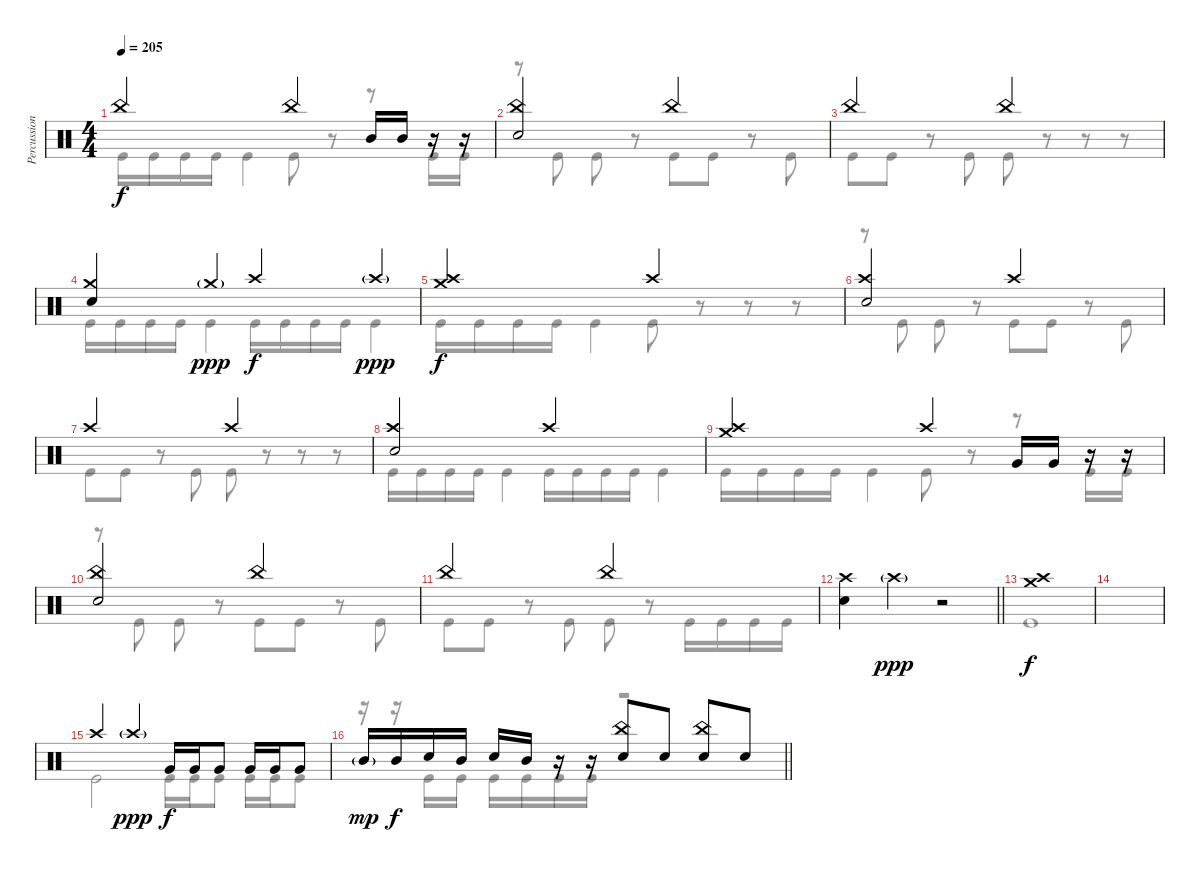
\track ("Percussion" "Percussion") {instrument percussion}
\staff {score}
\articulation defaults
\voice
\ts (4 4)
\tempo 205
\clef neutral
\ks c "China (hit)".2{dy f} "China (hit)".4 "Mid Tom (hit)".16 "Mid Tom (hit)".16
r.16 r.16 |
("China (hit)" "Electric Snare (hit)").2 "China (hit)".2 |
"China (hit)".2 "China (hit)".2 |
("Crash medium (hit)" "Electric Snare (hit)").4 "Crash medium (hit)"{g}.4{dy ppp} "Crash high (hit)".4{dy f} "Crash high (hit)"{g}.4{dy ppp} |
("Crash medium (hit)" "Crash high (hit)").2{dy f} "Crash high (hit)".2 |
("Crash high (hit)" "Electric Snare (hit)").2 "Crash high (hit)".2 |
"Crash high (hit)".2 "Crash high (hit)".2 |
("Crash high (hit)" "Electric Snare (hit)").2 "Crash high (hit)".2 |
("Crash medium (hit)" "Crash high (hit)").2 "Crash high (hit)".4 "Very Low Tom (hit)".16 "Very Low Tom (hit)".16 r.16 r.16 |
("China (hit)" "Electric Snare (hit)").2 "China (hit)".2 |
"China (hit)".2 "China (hit)".2 |
\barLineRight lightlight
("Crash high (hit)" "Electric Snare (hit)").4 "Crash high (hit)"{g}.4{dy ppp} r.2 |
\section ("" "")
("Crash medium (hit)" "Crash high (hit)").1{dy f} |
|
"Crash high (hit)".4 "Crash high (hit)"{g}.4{dy ppp} "Very Low Tom (hit)".16{dy f} "Very Low Tom (hit)".16 "Very Low Tom (hit)".8 "Very Low Tom (hit)".16 "Very Low Tom (hit)".16 "Very Low Tom (hit)".8 |
\barLineRight lightlight "Mid Tom (hit)"{g}.16{dy mp} "Mid Tom (hit)".16{dy f} "Electric Snare (hit)".16 "Mid Tom (hit)".16 "Electric Snare (hit)".16 "Mid Tom (hit)".16
r.16 r.16 ("China (hit)" "Electric Snare (hit)").8 "Electric Snare (hit)".8 ("China (hit)" "Electric Snare (hit)").8 "Electric Snare (hit)".8
\voice
\clef neutral
\ottava regular
\simile none
\ks c "Kick (hit)".16{dy f} "Kick (hit)".16 "Kick (hit)".16 "Kick (hit)".16 "Kick (hit)".4 "Kick (hit)".8
r.8 r.8 "Kick (hit)".16 "Kick (hit)".16 |
r.8 "Kick (hit)".8 "Kick (hit)".8 r.8 "Kick (hit)".8 "Kick (hit)".8 r.8 "Kick (hit)".8 |
"Kick (hit)".8 "Kick (hit)".8 r.8 "Kick (hit)".8 "Kick (hit)".8 r.8 r.8 r.8 |
"Kick (hit)".16 "Kick (hit)".16 "Kick (hit)".16 "Kick (hit)".16 "Kick (hit)".4 "Kick (hit)".16 "Kick (hit)".16 "Kick (hit)".16 "Kick (hit)".16 "Kick (hit)".4 |
"Kick (hit)".16 "Kick (hit)".16 "Kick (hit)".16 "Kick (hit)".16 "Kick (hit)".4 "Kick (hit)".8 r.8 r.8 r.8 |
r.8 "Kick (hit)".8 "Kick (hit)".8 r.8 "Kick (hit)".8 "Kick (hit)".8 r.8 "Kick (hit)".8 |
"Kick (hit)".8 "Kick (hit)".8 r.8 "Kick (hit)".8 "Kick (hit)".8 r.8 r.8 r.8 |
"Kick (hit)".16 "Kick (hit)".16 "Kick (hit)".16 "Kick (hit)".16 "Kick (hit)".4 "Kick (hit)".16 "Kick (hit)".16 "Kick (hit)".16 "Kick (hit)".16 "Kick (hit)".4 |
"Kick (hit)".16 "Kick (hit)".16 "Kick (hit)".16 "Kick (hit)".16 "Kick (hit)".4 "Kick (hit)".8 r.8 r.8 "Kick (hit)".16 "Kick (hit)".16 |
r.8 "Kick (hit)".8 "Kick (hit)".8 r.8 "Kick (hit)".8 "Kick (hit)".8 r.8 "Kick (hit)".8 |
"Kick (hit)".8 "Kick (hit)".8 r.8 "Kick (hit)".8 "Kick (hit)".8 r.8 "Kick (hit)".16 "Kick (hit)".16 "Kick (hit)".16 "Kick (hit)".16 |
\barLineRight lightlight
|
"Kick (hit)".1 |
|
"Kick (hit)".2 "Kick (hit)".16 "Kick (hit)".16 "Kick (hit)".8 "Kick (hit)".16 "Kick (hit)".16 "Kick (hit)".8 |
\barLineRight lightlight
r.16 r.16 "Kick (hit)".16 "Kick (hit)".16 "Kick (hit)".16 "Kick (hit)".16 "Kick (hit)".16 "Kick (hit)".16 r.2
